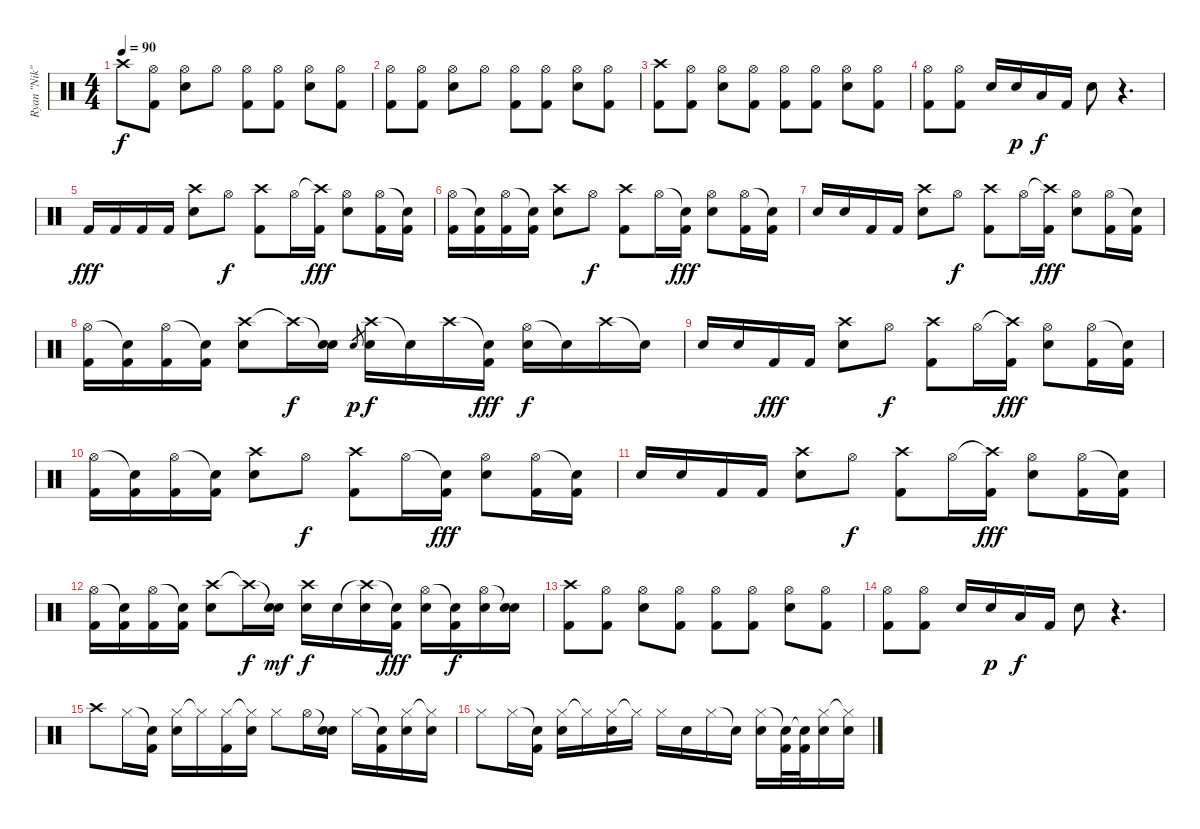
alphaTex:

\track ("Ryan \"Nik\" Vikedal (drums)" "Ryan \"Nik\"") {instrument percussion}
\staff {score}
\articulation defaults
\ts (4 4)
\tempo 90
\clef neutral
\ks c "Crash high (hit)".8{dy f}
("Hi-Hat (open)" "Kick (hit) 2").8 ("Hi-Hat (open)" "Electric Snare (hit)").8 "Hi-Hat (open)".8 ("Hi-Hat (open)" "Kick (hit) 2").8 ("Hi-Hat (open)" "Kick (hit) 2").8 ("Hi-Hat (open)" "Electric Snare (hit)").8 ("Hi-Hat (open)" "Kick (hit) 2").8 |
("Hi-Hat (open)" "Kick (hit) 2").8 ("Hi-Hat (open)" "Kick (hit) 2").8 ("Hi-Hat (open)" "Electric Snare (hit)").8 "Hi-Hat (open)".8 ("Hi-Hat (open)" "Kick (hit) 2").8 ("Hi-Hat (open)" "Kick (hit) 2").8 ("Hi-Hat (open)" "Electric Snare (hit)").8 ("Hi-Hat (open)" "Kick (hit) 2").8 |
("Crash high (hit)" "Kick (hit) 2").8 ("Hi-Hat (open)" "Kick (hit) 2").8 ("Hi-Hat (open)" "Electric Snare (hit)").8 ("Hi-Hat (open)" "Kick (hit) 2").8 ("Hi-Hat (open)" "Kick (hit) 2").8 ("Hi-Hat (open)" "Kick (hit) 2").8 ("Hi-Hat (open)" "Electric Snare (hit)").8 ("Hi-Hat (open)" "Kick (hit) 2").8 |
("Hi-Hat (open)" "Kick (hit) 2").8 ("Hi-Hat (open)" "Kick (hit) 2").8 "Electric Snare (hit)".16 "Electric Snare (hit)".16{dy p} "Low Tom (hit)".16{dy f} "Kick (hit) 2".16 "Electric Snare (hit)".8 r.4{d} |
"Kick (hit) 2".16{dy fff} "Kick (hit) 2".16 "Kick (hit) 2".16 "Kick (hit) 2".16 ("Crash high (hit)" "Electric Snare (hit)").8 "Hi-Hat (open)".8{dy f} ("Crash high (hit)" "Kick (hit) 2").8 "Hi-Hat (open)".16 ("Crash high (hit)"{t} "Kick (hit) 2").16{dy fff} ("Hi-Hat (open)" "Electric Snare (hit)").8 ("Hi-Hat (open)" "Kick (hit) 2").16 ("Snare (hit)"{t} "Kick (hit) 2").16 |
("Hi-Hat (open)" "Kick (hit) 2").16 ("Snare (hit)"{t} "Kick (hit) 2").16 ("Hi-Hat (open)" "Kick (hit) 2").16 ("Snare (hit)"{t} "Kick (hit) 2").16 ("Crash high (hit)" "Electric Snare (hit)").8 "Hi-Hat (open)".8{dy f} ("Crash high (hit)" "Kick (hit) 2").8 "Hi-Hat (open)".16 ("Snare (hit)"{t} "Kick (hit) 2").16{dy fff} ("Hi-Hat (open)" "Electric Snare (hit)").8 ("Hi-Hat (open)" "Kick (hit) 2").16 ("Snare (hit)"{t} "Kick (hit) 2").16 |
"Electric Snare (hit)".16 "Electric Snare (hit)".16 "Kick (hit) 2".16 "Kick (hit) 2".16 ("Crash high (hit)" "Electric Snare (hit)").8 "Hi-Hat (open)".8{dy f} ("Crash high (hit)" "Kick (hit) 2").8 "Hi-Hat (open)".16 ("Crash high (hit)"{t} "Kick (hit) 2").16{dy fff} ("Hi-Hat (open)" "Electric Snare (hit)").8 ("Hi-Hat (open)" "Kick (hit) 2").16 ("Snare (hit)"{t} "Kick (hit) 2").16 |
("Hi-Hat (open)" "Kick (hit) 2").16 ("Snare (hit)"{t} "Kick (hit) 2").16 ("Hi-Hat (open)" "Kick (hit) 2").16 ("Snare (hit)"{t} "Kick (hit) 2").16 ("Crash high (hit)" "Electric Snare (hit)").8 "Crash high (hit)"{t}.16{dy f} ("Snare (hit)"{t} "Electric Snare (hit)").16 "Electric Snare (hit)".8{gr dy p} ("Crash high (hit)" "Electric Snare (hit)").16{dy f} "Snare (hit)"{t}.16 "Crash high (hit)".16 ("Snare (hit)"{t} "Kick (hit) 2").16{dy fff} ("Hi-Hat (open)" "Electric Snare (hit)").16{dy f} "Snare (hit)"{t}.16 "Crash high (hit)".16 "Snare (hit)"{t}.16 |
"Electric Snare (hit)".16 "Electric Snare (hit)".16 "Kick (hit) 2".16{dy fff} "Kick (hit) 2".16 ("Crash high (hit)" "Electric Snare (hit)").8 "Hi-Hat (open)".8{dy f} ("Crash high (hit)" "Kick (hit) 2").8 "Hi-Hat (open)".16 ("Crash high (hit)"{t} "Kick (hit) 2").16{dy fff} ("Hi-Hat (open)" "Electric Snare (hit)").8 ("Hi-Hat (open)" "Kick (hit) 2").16 ("Snare (hit)"{t} "Kick (hit) 2").16 |
("Hi-Hat (open)" "Kick (hit) 2").16 ("Snare (hit)"{t} "Kick (hit) 2").16 ("Hi-Hat (open)" "Kick (hit) 2").16 ("Snare (hit)"{t} "Kick (hit) 2").16 ("Crash high (hit)" "Electric Snare (hit)").8 "Hi-Hat (open)".8{dy f} ("Crash high (hit)" "Kick (hit) 2").8 "Hi-Hat (open)".16 ("Snare (hit)"{t} "Kick (hit) 2").16{dy fff} ("Hi-Hat (open)" "Electric Snare (hit)").8 ("Hi-Hat (open)" "Kick (hit) 2").16 ("Snare (hit)"{t} "Kick (hit) 2").16 |
"Electric Snare (hit)".16 "Electric Snare (hit)".16 "Kick (hit) 2".16 "Kick (hit) 2".16 ("Crash high (hit)" "Electric Snare (hit)").8 "Hi-Hat (open)".8{dy f} ("Crash high (hit)" "Kick (hit) 2").8 "Hi-Hat (open)".16 ("Crash high (hit)"{t} "Kick (hit) 2").16{dy fff} ("Hi-Hat (open)" "Electric Snare (hit)").8 ("Hi-Hat (open)" "Kick (hit) 2").16 ("Snare (hit)"{t} "Kick (hit) 2").16 |
("Hi-Hat (open)" "Kick (hit) 2").16 ("Snare (hit)"{t} "Kick (hit) 2").16 ("Hi-Hat (open)" "Kick (hit) 2").16 ("Snare (hit)"{t} "Kick (hit) 2").16 ("Crash high (hit)" "Electric Snare (hit)").8 "Crash high (hit)"{t}.16{dy f} ("Snare (hit)"{t} "Electric Snare (hit)").16{dy mf} ("Crash high (hit)" "Electric Snare (hit)").16{dy f} "Electric Snare (hit)".16 ("Crash high (hit)"{t} "Electric Snare (hit)").16 ("Snare (hit)"{t} "Kick (hit) 2").16{dy fff} ("Hi-Hat (open)" "Electric Snare (hit)").16 ("Snare (hit)"{t} "Kick (hit) 2").16{dy f} ("Hi-Hat (open)" "Electric Snare (hit)").16 ("Snare (hit)"{t} "Electric Snare (hit)").16 |
("Crash high (hit)" "Kick (hit) 2").8 ("Hi-Hat (open)" "Kick (hit) 2").8 ("Hi-Hat (open)" "Electric Snare (hit)").8 ("Hi-Hat (open)" "Kick (hit) 2").8 ("Hi-Hat (open)" "Kick (hit) 2").8 ("Hi-Hat (open)" "Kick (hit) 2").8 ("Hi-Hat (open)" "Electric Snare (hit)").8 ("Hi-Hat (open)" "Kick (hit) 2").8 |
("Hi-Hat (open)" "Kick (hit) 2").8 ("Hi-Hat (open)" "Kick (hit) 2").8 "Electric Snare (hit)".16 "Electric Snare (hit)".16{dy p} "Low Tom (hit)".16{dy f} "Kick (hit) 2".16 "Electric Snare (hit)".8 r.4{d} |
"Crash high (hit)".8 "Hi-Hat (closed)".16 ("Snare (hit)"{t} "Kick (hit) 2").16 ("Hi-Hat (closed)" "Electric Snare (hit)").16 "Hi-Hat (closed)"{t}.16 ("Hi-Hat (closed)" "Kick (hit) 2").16 ("Hi-Hat (closed)"{t} "Electric Snare (hit)").16 "Hi-Hat (closed)".8 "Hi-Hat (open)".16 ("Snare (hit)"{t} "Electric Snare (hit)").16 "Hi-Hat (closed)".16 ("Snare (hit)"{t} "Kick (hit) 2").16 ("Hi-Hat (closed)" "Electric Snare (hit)").16 ("Hi-Hat (closed)"{t} "Electric Snare (hit)").16 |
"Hi-Hat (closed)".8 "Hi-Hat (closed)".16 ("Snare (hit)"{t} "Kick (hit) 2").16 ("Hi-Hat (closed)" "Electric Snare (hit)").16 "Hi-Hat (closed)"{t}.16 ("Hi-Hat (closed)" "Electric Snare (hit)").16 "Hi-Hat (closed)"{t}.16 "Hi-Hat (closed)".16 "Electric Snare (hit)".16 "Hi-Hat (closed)".16 "Snare (hit)"{t}.16 ("Hi-Hat (closed)" "Electric Snare (hit)").16 ("Snare (hit)"{t} "Kick (hit) 2").32 ("Snare (hit)"{t} "Kick (hit) 2").32 ("Hi-Hat (closed)" "Electric Snare (hit)").16 ("Hi-Hat (closed)"{t} "Electric Snare (hit)").16
